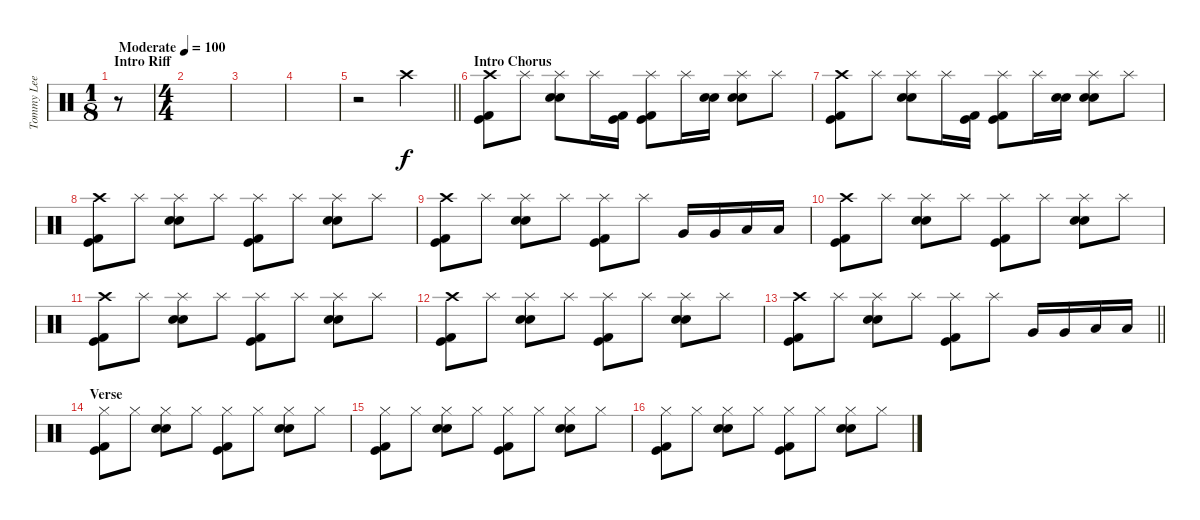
\track ("Tommy Lee" "Tommy Lee") {instrument percussion}
\staff {score}
\articulation defaults
\ts (1 8)
\section ("" "Intro Riff")
\tempo (100 "Moderate")
\clef neutral
\ks c
r.8{dy f} |
\ts (4 4)
|
|
|
\barLineRight lightlight
r.2 "Crash high (hit)".2 |
\section ("" "Intro Chorus")
("Crash high (hit)" "Kick (hit) 2" "Kick (hit)").8 "Splash (hit)".8 ("Splash (hit)" "Electric Snare (hit)" "Snare (hit) 2").8 "Splash (hit)".16 ("Kick (hit) 2" "Kick (hit)").16 ("Splash (hit)" "Kick (hit) 2" "Kick (hit)").8 "Splash (hit)".16 ("Electric Snare (hit)" "Snare (hit) 2").16 ("Splash (hit)" "Electric Snare (hit)" "Snare (hit) 2").8 "Splash (hit)".8 |
("Crash high (hit)" "Kick (hit) 2" "Kick (hit)").8 "Splash (hit)".8 ("Splash (hit)" "Electric Snare (hit)" "Snare (hit) 2").8 "Splash (hit)".16 ("Kick (hit) 2" "Kick (hit)").16 ("Splash (hit)" "Kick (hit) 2" "Kick (hit)").8 "Splash (hit)".16 ("Electric Snare (hit)" "Snare (hit) 2").16 ("Splash (hit)" "Electric Snare (hit)" "Snare (hit) 2").8 "Splash (hit)".8 |
("Crash high (hit)" "Kick (hit) 2" "Kick (hit)").8 "Splash (hit)".8 ("Splash (hit)" "Electric Snare (hit)" "Snare (hit) 2").8 "Splash (hit)".8 ("Splash (hit)" "Kick (hit) 2" "Kick (hit)").8 "Splash (hit)".8 ("Splash (hit)" "Electric Snare (hit)" "Snare (hit) 2").8 "Splash (hit)".8 |
("Crash high (hit)" "Kick (hit) 2" "Kick (hit)").8 "Splash (hit)".8 ("Splash (hit)" "Electric Snare (hit)" "Snare (hit) 2").8 "Splash (hit)".8 ("Splash (hit)" "Kick (hit) 2" "Kick (hit)").8 "Splash (hit)".8 "Very Low Tom (hit)".16 "Very Low Tom (hit)".16 "Low Floor Tom (hit)".16 "Low Floor Tom (hit)".16 |
("Crash high (hit)" "Kick (hit) 2" "Kick (hit)").8 "Splash (hit)".8 ("Splash (hit)" "Electric Snare (hit)" "Snare (hit) 2").8 "Splash (hit)".8 ("Splash (hit)" "Kick (hit) 2" "Kick (hit)").8 "Splash (hit)".8 ("Splash (hit)" "Electric Snare (hit)" "Snare (hit) 2").8 "Splash (hit)".8 |
("Crash high (hit)" "Kick (hit) 2" "Kick (hit)").8 "Splash (hit)".8 ("Splash (hit)" "Electric Snare (hit)" "Snare (hit) 2").8 "Splash (hit)".8 ("Splash (hit)" "Kick (hit) 2" "Kick (hit)").8 "Splash (hit)".8 ("Splash (hit)" "Electric Snare (hit)" "Snare (hit) 2").8 "Splash (hit)".8 |
("Crash high (hit)" "Kick (hit) 2" "Kick (hit)").8 "Splash (hit)".8 ("Splash (hit)" "Electric Snare (hit)" "Snare (hit) 2").8 "Splash (hit)".8 ("Splash (hit)" "Kick (hit) 2" "Kick (hit)").8 "Splash (hit)".8 ("Splash (hit)" "Electric Snare (hit)" "Snare (hit) 2").8 "Splash (hit)".8 |
\barLineRight lightlight
("Crash high (hit)" "Kick (hit) 2" "Kick (hit)").8 "Splash (hit)".8 ("Splash (hit)" "Electric Snare (hit)" "Snare (hit) 2").8 "Splash (hit)".8 ("Splash (hit)" "Kick (hit) 2" "Kick (hit)").8 "Splash (hit)".8 "Very Low Tom (hit)".16 "Very Low Tom (hit)".16 "Low Floor Tom (hit)".16 "Low Floor Tom (hit)".16 |
\section ("" "Verse")
("Hi-Hat (closed)" "Kick (hit) 2" "Kick (hit)").8 "Hi-Hat (closed)".8 ("Hi-Hat (closed)" "Electric Snare (hit)" "Snare (hit) 2").8 "Hi-Hat (closed)".8 ("Hi-Hat (closed)" "Kick (hit) 2" "Kick (hit)").8 "Hi-Hat (closed)".8 ("Hi-Hat (closed)" "Electric Snare (hit)" "Snare (hit) 2").8 "Hi-Hat (closed)".8 |
("Hi-Hat (closed)" "Kick (hit) 2" "Kick (hit)").8 "Hi-Hat (closed)".8 ("Hi-Hat (closed)" "Electric Snare (hit)" "Snare (hit) 2").8 "Hi-Hat (closed)".8 ("Hi-Hat (closed)" "Kick (hit) 2" "Kick (hit)").8 "Hi-Hat (closed)".8 ("Hi-Hat (closed)" "Electric Snare (hit)" "Snare (hit) 2").8 "Hi-Hat (closed)".8 |
("Hi-Hat (closed)" "Kick (hit) 2" "Kick (hit)").8 "Hi-Hat (closed)".8 ("Hi-Hat (closed)" "Electric Snare (hit)" "Snare (hit) 2").8 "Hi-Hat (closed)".8 ("Hi-Hat (closed)" "Kick (hit) 2" "Kick (hit)").8 "Hi-Hat (closed)".8 ("Hi-Hat (closed)" "Electric Snare (hit)" "Snare (hit) 2").8 "Hi-Hat (closed)".8
